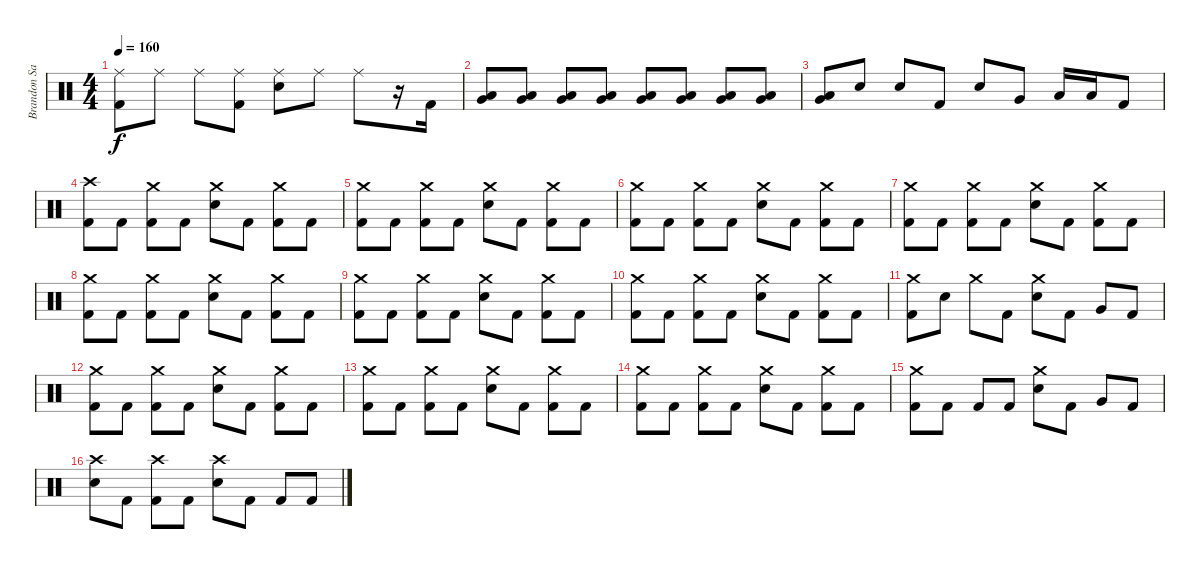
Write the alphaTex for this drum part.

\track ("Brandon Saller" "Brandon Sa") {instrument percussion}
\staff {score}
\articulation defaults
\ts (4 4)
\tempo 160
\clef neutral
\ks c
("Ride (middle)" "Kick (hit) 2").8{dy f} "Ride (middle)".8 "Ride (middle)".8 ("Ride (middle)" "Kick (hit) 2").8 ("Ride (middle)" "Electric Snare (hit)").8 "Ride (middle)".8 "Ride (middle)".8 r.16 "Kick (hit) 2".16 |
("Very Low Tom (hit)" "Low Floor Tom (hit)").8 ("Very Low Tom (hit)" "Low Floor Tom (hit)").8 ("Very Low Tom (hit)" "Low Floor Tom (hit)").8 ("Very Low Tom (hit)" "Low Floor Tom (hit)").8 ("Very Low Tom (hit)" "Low Floor Tom (hit)").8 ("Very Low Tom (hit)" "Low Floor Tom (hit)").8 ("Very Low Tom (hit)" "Low Floor Tom (hit)").8 ("Very Low Tom (hit)" "Low Floor Tom (hit)").8 |
("Very Low Tom (hit)" "Low Floor Tom (hit)").8 "Electric Snare (hit)".8 "Electric Snare (hit)".8 "Kick (hit) 2".8 "Electric Snare (hit)".8 "Very Low Tom (hit)".8 "Low Floor Tom (hit)".16 "Low Floor Tom (hit)".16 "Kick (hit) 2".8 |
("Crash high (hit)" "Kick (hit) 2").8 "Kick (hit) 2".8 ("Crash medium (hit)" "Kick (hit) 2").8 "Kick (hit) 2".8 ("Crash medium (hit)" "Electric Snare (hit)").8 "Kick (hit) 2".8 ("Crash medium (hit)" "Kick (hit) 2").8 "Kick (hit) 2".8 |
("Crash medium (hit)" "Kick (hit) 2").8 "Kick (hit) 2".8 ("Crash medium (hit)" "Kick (hit) 2").8 "Kick (hit) 2".8 ("Crash medium (hit)" "Electric Snare (hit)").8 "Kick (hit) 2".8 ("Crash medium (hit)" "Kick (hit) 2").8 "Kick (hit) 2".8 |
("Crash medium (hit)" "Kick (hit) 2").8 "Kick (hit) 2".8 ("Crash medium (hit)" "Kick (hit) 2").8 "Kick (hit) 2".8 ("Crash medium (hit)" "Electric Snare (hit)").8 "Kick (hit) 2".8 ("Crash medium (hit)" "Kick (hit) 2").8 "Kick (hit) 2".8 |
("Crash medium (hit)" "Kick (hit) 2").8 "Kick (hit) 2".8 ("Crash medium (hit)" "Kick (hit) 2").8 "Kick (hit) 2".8 ("Crash medium (hit)" "Electric Snare (hit)").8 "Kick (hit) 2".8 ("Crash medium (hit)" "Kick (hit) 2").8 "Kick (hit) 2".8 |
("Crash medium (hit)" "Kick (hit) 2").8 "Kick (hit) 2".8 ("Crash medium (hit)" "Kick (hit) 2").8 "Kick (hit) 2".8 ("Crash medium (hit)" "Electric Snare (hit)").8 "Kick (hit) 2".8 ("Crash medium (hit)" "Kick (hit) 2").8 "Kick (hit) 2".8 |
("Crash medium (hit)" "Kick (hit) 2").8 "Kick (hit) 2".8 ("Crash medium (hit)" "Kick (hit) 2").8 "Kick (hit) 2".8 ("Crash medium (hit)" "Electric Snare (hit)").8 "Kick (hit) 2".8 ("Crash medium (hit)" "Kick (hit) 2").8 "Kick (hit) 2".8 |
("Crash medium (hit)" "Kick (hit) 2").8 "Kick (hit) 2".8 ("Crash medium (hit)" "Kick (hit) 2").8 "Kick (hit) 2".8 ("Crash medium (hit)" "Electric Snare (hit)").8 "Kick (hit) 2".8 ("Crash medium (hit)" "Kick (hit) 2").8 "Kick (hit) 2".8 |
("Crash medium (hit)" "Kick (hit) 2").8 "Electric Snare (hit)".8 "Crash medium (hit)".8 "Kick (hit) 2".8 ("Crash medium (hit)" "Electric Snare (hit)").8 "Kick (hit) 2".8 "Very Low Tom (hit)".8 "Kick (hit) 2".8 |
("Crash medium (hit)" "Kick (hit) 2").8 "Kick (hit) 2".8 ("Crash medium (hit)" "Kick (hit) 2").8 "Kick (hit) 2".8 ("Crash medium (hit)" "Electric Snare (hit)").8 "Kick (hit) 2".8 ("Crash medium (hit)" "Kick (hit) 2").8 "Kick (hit) 2".8 |
("Crash medium (hit)" "Kick (hit) 2").8 "Kick (hit) 2".8 ("Crash medium (hit)" "Kick (hit) 2").8 "Kick (hit) 2".8 ("Crash medium (hit)" "Electric Snare (hit)").8 "Kick (hit) 2".8 ("Crash medium (hit)" "Kick (hit) 2").8 "Kick (hit) 2".8 |
("Crash medium (hit)" "Kick (hit) 2").8 "Kick (hit) 2".8 ("Crash medium (hit)" "Kick (hit) 2").8 "Kick (hit) 2".8 ("Crash medium (hit)" "Electric Snare (hit)").8 "Kick (hit) 2".8 ("Crash medium (hit)" "Kick (hit) 2").8 "Kick (hit) 2".8 |
("Crash medium (hit)" "Kick (hit) 2").8 "Kick (hit) 2".8 "Kick (hit) 2".8 "Kick (hit) 2".8 ("Crash medium (hit)" "Electric Snare (hit)").8 "Kick (hit) 2".8 "Very Low Tom (hit)".8 "Kick (hit) 2".8 |
("Crash high (hit)" "Electric Snare (hit)").8 "Kick (hit) 2".8 ("Crash high (hit)" "Kick (hit) 2").8 "Kick (hit) 2".8 ("Crash high (hit)" "Electric Snare (hit)").8 "Kick (hit) 2".8 "Kick (hit) 2".8 "Kick (hit) 2".8
